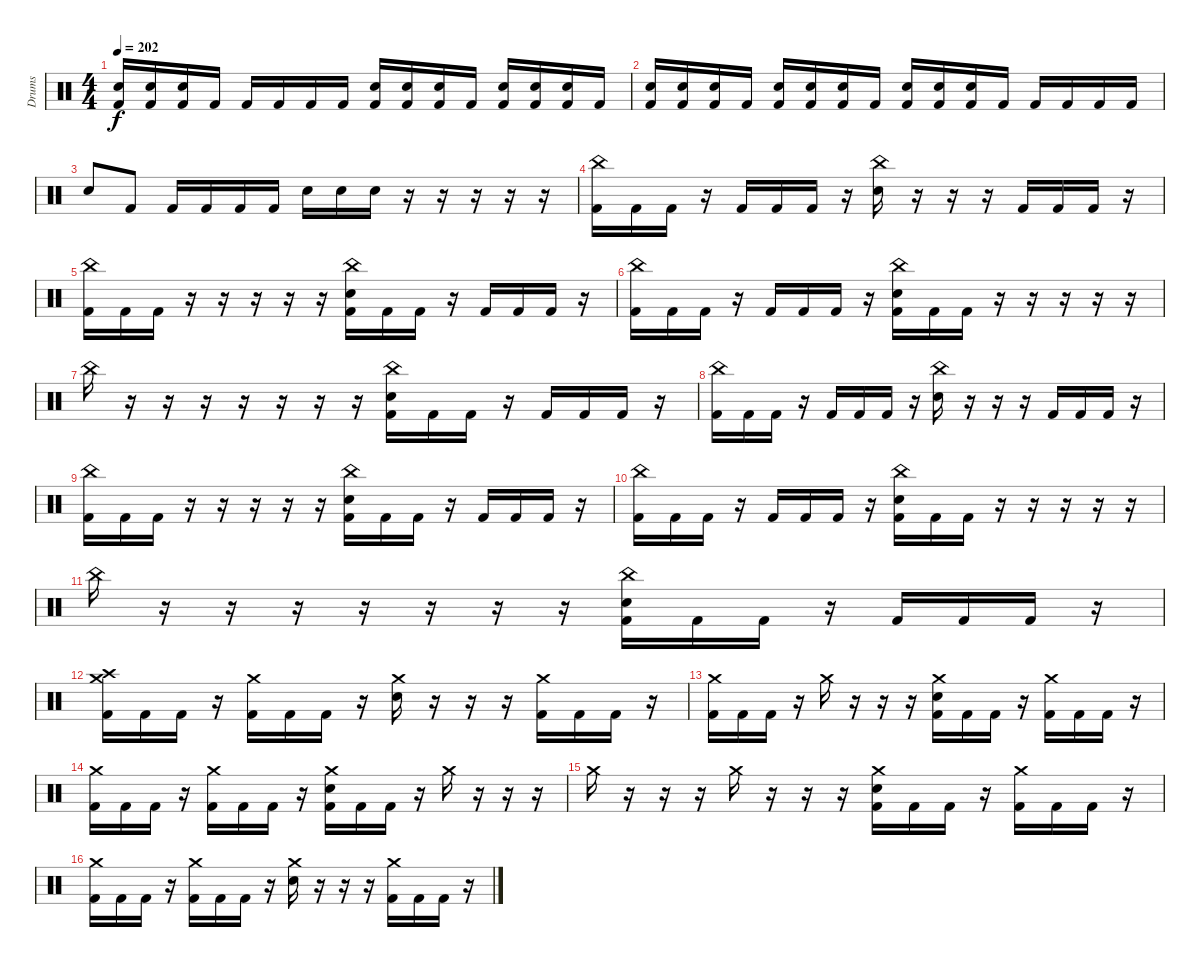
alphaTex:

\track ("Drums" "Drums") {instrument percussion}
\staff {score}
\articulation defaults
\ts (4 4)
\tempo 202
\clef neutral
\ks c
("Electric Snare (hit)" "Kick (hit) 2").16{dy f} ("Electric Snare (hit)" "Kick (hit) 2").16 ("Electric Snare (hit)" "Kick (hit) 2").16 "Kick (hit) 2".16 "Kick (hit) 2".16 "Kick (hit) 2".16 "Kick (hit) 2".16 "Kick (hit) 2".16 ("Electric Snare (hit)" "Kick (hit) 2").16 ("Electric Snare (hit)" "Kick (hit) 2").16 ("Electric Snare (hit)" "Kick (hit) 2").16 "Kick (hit) 2".16 ("Electric Snare (hit)" "Kick (hit) 2").16 ("Electric Snare (hit)" "Kick (hit) 2").16 ("Electric Snare (hit)" "Kick (hit) 2").16 "Kick (hit) 2".16 |
("Electric Snare (hit)" "Kick (hit) 2").16 ("Electric Snare (hit)" "Kick (hit) 2").16 ("Electric Snare (hit)" "Kick (hit) 2").16 "Kick (hit) 2".16 ("Electric Snare (hit)" "Kick (hit) 2").16 ("Electric Snare (hit)" "Kick (hit) 2").16 ("Electric Snare (hit)" "Kick (hit) 2").16 "Kick (hit) 2".16 ("Electric Snare (hit)" "Kick (hit) 2").16 ("Electric Snare (hit)" "Kick (hit) 2").16 ("Electric Snare (hit)" "Kick (hit) 2").16 "Kick (hit) 2".16 "Kick (hit) 2".16 "Kick (hit) 2".16 "Kick (hit) 2".16 "Kick (hit) 2".16 |
"Electric Snare (hit)".8 "Kick (hit) 2".8 "Kick (hit) 2".16 "Kick (hit) 2".16 "Kick (hit) 2".16 "Kick (hit) 2".16 "Electric Snare (hit)".16 "Electric Snare (hit)".16 "Electric Snare (hit)".16 r.16 r.16 r.16 r.16 r.16 |
("China (hit)" "Kick (hit) 2").16 "Kick (hit) 2".16 "Kick (hit) 2".16 r.16 "Kick (hit) 2".16 "Kick (hit) 2".16 "Kick (hit) 2".16 r.16 ("China (hit)" "Electric Snare (hit)").16 r.16 r.16 r.16 "Kick (hit) 2".16 "Kick (hit) 2".16 "Kick (hit) 2".16 r.16 |
("China (hit)" "Kick (hit) 2").16 "Kick (hit) 2".16 "Kick (hit) 2".16 r.16 r.16 r.16 r.16 r.16 ("China (hit)" "Electric Snare (hit)" "Kick (hit) 2").16 "Kick (hit) 2".16 "Kick (hit) 2".16 r.16 "Kick (hit) 2".16 "Kick (hit) 2".16 "Kick (hit) 2".16 r.16 |
("China (hit)" "Kick (hit) 2").16 "Kick (hit) 2".16 "Kick (hit) 2".16 r.16 "Kick (hit) 2".16 "Kick (hit) 2".16 "Kick (hit) 2".16 r.16 ("China (hit)" "Electric Snare (hit)" "Kick (hit) 2").16 "Kick (hit) 2".16 "Kick (hit) 2".16 r.16 r.16 r.16 r.16 r.16 |
"China (hit)".16 r.16 r.16 r.16 r.16 r.16 r.16 r.16 ("China (hit)" "Electric Snare (hit)" "Kick (hit) 2").16 "Kick (hit) 2".16 "Kick (hit) 2".16 r.16 "Kick (hit) 2".16 "Kick (hit) 2".16 "Kick (hit) 2".16 r.16 |
("China (hit)" "Kick (hit) 2").16 "Kick (hit) 2".16 "Kick (hit) 2".16 r.16 "Kick (hit) 2".16 "Kick (hit) 2".16 "Kick (hit) 2".16 r.16 ("China (hit)" "Electric Snare (hit)").16 r.16 r.16 r.16 "Kick (hit) 2".16 "Kick (hit) 2".16 "Kick (hit) 2".16 r.16 |
("China (hit)" "Kick (hit) 2").16 "Kick (hit) 2".16 "Kick (hit) 2".16 r.16 r.16 r.16 r.16 r.16 ("China (hit)" "Electric Snare (hit)" "Kick (hit) 2").16 "Kick (hit) 2".16 "Kick (hit) 2".16 r.16 "Kick (hit) 2".16 "Kick (hit) 2".16 "Kick (hit) 2".16 r.16 |
("China (hit)" "Kick (hit) 2").16 "Kick (hit) 2".16 "Kick (hit) 2".16 r.16 "Kick (hit) 2".16 "Kick (hit) 2".16 "Kick (hit) 2".16 r.16 ("China (hit)" "Electric Snare (hit)" "Kick (hit) 2").16 "Kick (hit) 2".16 "Kick (hit) 2".16 r.16 r.16 r.16 r.16 r.16 |
"China (hit)".16 r.16 r.16 r.16 r.16 r.16 r.16 r.16 ("China (hit)" "Electric Snare (hit)" "Kick (hit) 2").16 "Kick (hit) 2".16 "Kick (hit) 2".16 r.16 "Kick (hit) 2".16 "Kick (hit) 2".16 "Kick (hit) 2".16 r.16 |
("Crash medium (hit)" "Crash high (hit)" "Kick (hit) 2").16 "Kick (hit) 2".16 "Kick (hit) 2".16 r.16 ("Crash medium (hit)" "Kick (hit) 2").16 "Kick (hit) 2".16 "Kick (hit) 2".16 r.16 ("Crash medium (hit)" "Electric Snare (hit)").16 r.16 r.16 r.16 ("Crash medium (hit)" "Kick (hit) 2").16 "Kick (hit) 2".16 "Kick (hit) 2".16 r.16 |
("Crash medium (hit)" "Kick (hit) 2").16 "Kick (hit) 2".16 "Kick (hit) 2".16 r.16 "Crash medium (hit)".16 r.16 r.16 r.16 ("Crash medium (hit)" "Electric Snare (hit)" "Kick (hit) 2").16 "Kick (hit) 2".16 "Kick (hit) 2".16 r.16 ("Crash medium (hit)" "Kick (hit) 2").16 "Kick (hit) 2".16 "Kick (hit) 2".16 r.16 |
("Crash medium (hit)" "Kick (hit) 2").16 "Kick (hit) 2".16 "Kick (hit) 2".16 r.16 ("Crash medium (hit)" "Kick (hit) 2").16 "Kick (hit) 2".16 "Kick (hit) 2".16 r.16 ("Crash medium (hit)" "Electric Snare (hit)" "Kick (hit) 2").16 "Kick (hit) 2".16 "Kick (hit) 2".16 r.16 "Crash medium (hit)".16 r.16 r.16 r.16 |
"Crash medium (hit)".16 r.16 r.16 r.16 "Crash medium (hit)".16 r.16 r.16 r.16 ("Crash medium (hit)" "Electric Snare (hit)" "Kick (hit) 2").16 "Kick (hit) 2".16 "Kick (hit) 2".16 r.16 ("Crash medium (hit)" "Kick (hit) 2").16 "Kick (hit) 2".16 "Kick (hit) 2".16 r.16 |
("Crash medium (hit)" "Kick (hit) 2").16 "Kick (hit) 2".16 "Kick (hit) 2".16 r.16 ("Crash medium (hit)" "Kick (hit) 2").16 "Kick (hit) 2".16 "Kick (hit) 2".16 r.16 ("Crash medium (hit)" "Electric Snare (hit)").16 r.16 r.16 r.16 ("Crash medium (hit)" "Kick (hit) 2").16 "Kick (hit) 2".16 "Kick (hit) 2".16 r.16
